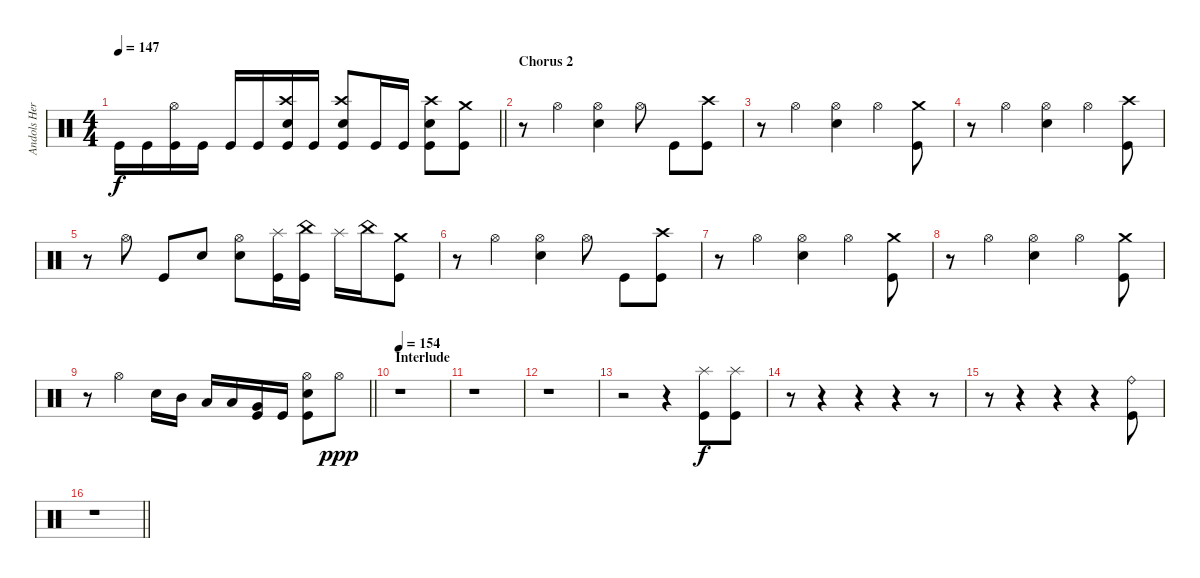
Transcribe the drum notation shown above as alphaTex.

\track ("Andols Herrick" "Andols Her") {instrument percussion}
\staff
\articulation defaults
\ts (4 4)
\tempo 147
\clef neutral
\barLineRight lightlight
\ks c "Kick (hit)".16{dy f} "Kick (hit)".16
("Hi-Hat (open)" "Kick (hit)").16 "Kick (hit)".16 "Kick (hit)".16 "Kick (hit)".16 ("Crash high (hit)" "Electric Snare (hit)" "Kick (hit)").16 "Kick (hit)".16 ("Crash high (hit)" "Electric Snare (hit)" "Kick (hit)").8 "Kick (hit)".16 "Kick (hit)".16 ("Crash high (hit)" "Electric Snare (hit)" "Kick (hit)").8 ("Crash medium (hit)" "Kick (hit)").8 |
\section ("" "Chorus 2")
r.8 "Hi-Hat (open)".4 ("Hi-Hat (open)" "Electric Snare (hit)").4 "Hi-Hat (open)".8 "Kick (hit)".8 ("Crash high (hit)" "Kick (hit)").8 |
r.8 "Hi-Hat (open)".4 ("Hi-Hat (open)" "Electric Snare (hit)").4 "Hi-Hat (open)".4 ("Crash medium (hit)" "Kick (hit)").8 |
r.8 "Hi-Hat (open)".4 ("Hi-Hat (open)" "Electric Snare (hit)").4 "Hi-Hat (open)".4 ("Crash high (hit)" "Kick (hit)").8 |
r.8 "Hi-Hat (open)".8 "Kick (hit)".8 "Electric Snare (hit)".8 ("Hi-Hat (open)" "Electric Snare (hit)").8 ("Splash (hit)" "Kick (hit)").16 ("China (hit)" "Kick (hit)").16 "Splash (hit)".16 "China (hit)".16 ("Crash medium (hit)" "Kick (hit)").8 |
r.8 "Hi-Hat (open)".4 ("Hi-Hat (open)" "Electric Snare (hit)").4 "Hi-Hat (open)".8 "Kick (hit)".8 ("Crash high (hit)" "Kick (hit)").8 |
r.8 "Hi-Hat (open)".4 ("Hi-Hat (open)" "Electric Snare (hit)").4 "Hi-Hat (open)".4 ("Crash medium (hit)" "Kick (hit)").8 |
r.8 "Hi-Hat (open)".4 ("Hi-Hat (open)" "Electric Snare (hit)").4 "Hi-Hat (open)".4 ("Crash medium (hit)" "Kick (hit)").8 |
\barLineRight lightlight
r.8 "Hi-Hat (open)".4 "Electric Snare (hit)".16 "Mid Tom (hit)".16 "Low Tom (hit)".16 "Low Tom (hit)".16 ("Very Low Tom (hit)" "Kick (hit)").16 "Kick (hit)".16 ("Hi-Hat (open)" "Electric Snare (hit)" "Kick (hit)").8 "Hi-Hat (open)".8{dy ppp} |
\section ("" "Interlude")
\tempo 154
r.1 |
r.1 |
r.1 |
r.2 r.4 ("Splash (hit)" "Kick (hit)").8{dy f} ("Splash (hit)" "Kick (hit)").8 |
r.8 r.4 r.4 r.4 r.8 |
r.8 r.4 r.4 r.4 ("Ride (bell)" "Kick (hit)").8 |
\barLineRight lightlight
r.1
